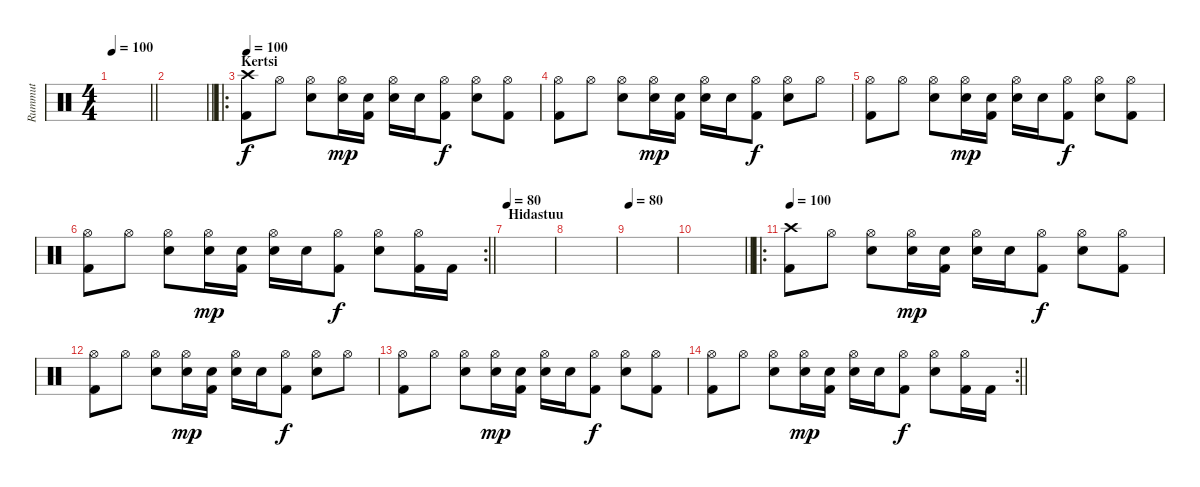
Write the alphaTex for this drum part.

\track ("Rummut" "Rummut") {instrument percussion}
\staff {score}
\articulation defaults
\ts (4 4)
\tempo 100
\clef neutral
\barLineRight lightlight
\ks c
|
\barLineRight lightlight
|
\ro
\section ("" "Kertsi")
\tempo 100
("Crash high (hit)" "Kick (hit) 2").8 "Hi-Hat (open)".8 ("Hi-Hat (open)" "Snare (hit) 2").8 ("Hi-Hat (open)" "Snare (hit) 2").16{dy mp} ("Snare (hit) 2" "Kick (hit) 2").16 ("Hi-Hat (open)" "Snare (hit) 2").16 "Snare (hit) 2".16 ("Hi-Hat (open)" "Kick (hit) 2").8{dy f} ("Hi-Hat (open)" "Snare (hit) 2").8 ("Hi-Hat (open)" "Kick (hit) 2").8 |
("Hi-Hat (open)" "Kick (hit) 2").8 "Hi-Hat (open)".8 ("Hi-Hat (open)" "Snare (hit) 2").8 ("Hi-Hat (open)" "Snare (hit) 2").16{dy mp} ("Snare (hit) 2" "Kick (hit) 2").16 ("Hi-Hat (open)" "Snare (hit) 2").16 "Snare (hit) 2".16 ("Hi-Hat (open)" "Kick (hit) 2").8{dy f} ("Hi-Hat (open)" "Snare (hit) 2").8 "Hi-Hat (open)".8 |
("Hi-Hat (open)" "Kick (hit) 2").8 "Hi-Hat (open)".8 ("Hi-Hat (open)" "Snare (hit) 2").8 ("Hi-Hat (open)" "Snare (hit) 2").16{dy mp} ("Snare (hit) 2" "Kick (hit) 2").16 ("Hi-Hat (open)" "Snare (hit) 2").16 "Snare (hit) 2".16 ("Hi-Hat (open)" "Kick (hit) 2").8{dy f} ("Hi-Hat (open)" "Snare (hit) 2").8 ("Hi-Hat (open)" "Kick (hit) 2").8 |
\rc 2
\barLineRight lightlight
("Hi-Hat (open)" "Kick (hit) 2").8 "Hi-Hat (open)".8 ("Hi-Hat (open)" "Snare (hit) 2").8 ("Hi-Hat (open)" "Snare (hit) 2").16{dy mp} ("Snare (hit) 2" "Kick (hit) 2").16 ("Hi-Hat (open)" "Snare (hit) 2").16 "Snare (hit) 2".16 ("Hi-Hat (open)" "Kick (hit) 2").8{dy f} ("Hi-Hat (open)" "Snare (hit) 2").8 ("Hi-Hat (open)" "Kick (hit) 2").16 "Kick (hit) 2".16 |
\section ("" "Hidastuu")
\tempo 80
|
|
\tempo 80
|
\barLineRight lightlight
|
\ro
\tempo 100
("Crash high (hit)" "Kick (hit) 2").8 "Hi-Hat (open)".8 ("Hi-Hat (open)" "Snare (hit) 2").8 ("Hi-Hat (open)" "Snare (hit) 2").16{dy mp} ("Snare (hit) 2" "Kick (hit) 2").16 ("Hi-Hat (open)" "Snare (hit) 2").16 "Snare (hit) 2".16 ("Hi-Hat (open)" "Kick (hit) 2").8{dy f} ("Hi-Hat (open)" "Snare (hit) 2").8 ("Hi-Hat (open)" "Kick (hit) 2").8 |
("Hi-Hat (open)" "Kick (hit) 2").8 "Hi-Hat (open)".8 ("Hi-Hat (open)" "Snare (hit) 2").8 ("Hi-Hat (open)" "Snare (hit) 2").16{dy mp} ("Snare (hit) 2" "Kick (hit) 2").16 ("Hi-Hat (open)" "Snare (hit) 2").16 "Snare (hit) 2".16 ("Hi-Hat (open)" "Kick (hit) 2").8{dy f} ("Hi-Hat (open)" "Snare (hit) 2").8 "Hi-Hat (open)".8 |
("Hi-Hat (open)" "Kick (hit) 2").8 "Hi-Hat (open)".8 ("Hi-Hat (open)" "Snare (hit) 2").8 ("Hi-Hat (open)" "Snare (hit) 2").16{dy mp} ("Snare (hit) 2" "Kick (hit) 2").16 ("Hi-Hat (open)" "Snare (hit) 2").16 "Snare (hit) 2".16 ("Hi-Hat (open)" "Kick (hit) 2").8{dy f} ("Hi-Hat (open)" "Snare (hit) 2").8 ("Hi-Hat (open)" "Kick (hit) 2").8 |
\rc 2
\barLineRight lightlight
("Hi-Hat (open)" "Kick (hit) 2").8 "Hi-Hat (open)".8 ("Hi-Hat (open)" "Snare (hit) 2").8 ("Hi-Hat (open)" "Snare (hit) 2").16{dy mp} ("Snare (hit) 2" "Kick (hit) 2").16 ("Hi-Hat (open)" "Snare (hit) 2").16 "Snare (hit) 2".16 ("Hi-Hat (open)" "Kick (hit) 2").8{dy f} ("Hi-Hat (open)" "Snare (hit) 2").8 ("Hi-Hat (open)" "Kick (hit) 2").16 "Kick (hit) 2".16
